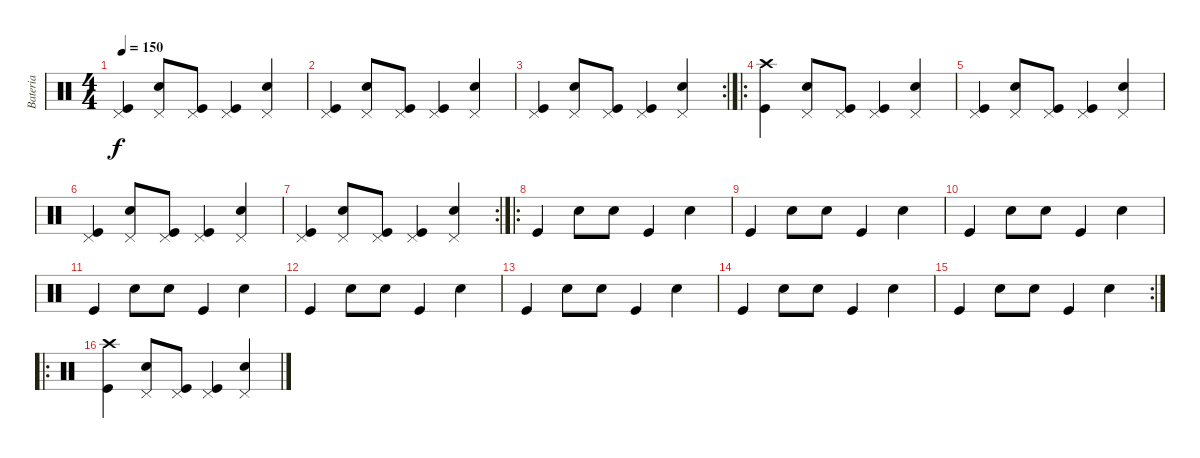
\track ("Bateria" "Bateria") {instrument percussion}
\staff {score}
\articulation defaults
\ts (4 4)
\tempo 150
\clef neutral
\ks c
("Pedal Hi-Hat (hit)" "Kick (hit)").4{dy f} ("Pedal Hi-Hat (hit)" "Snare (hit) 2").8 ("Pedal Hi-Hat (hit)" "Kick (hit)").8 ("Pedal Hi-Hat (hit)" "Kick (hit)").4 ("Pedal Hi-Hat (hit)" "Snare (hit) 2").4 |
("Pedal Hi-Hat (hit)" "Kick (hit)").4 ("Pedal Hi-Hat (hit)" "Snare (hit) 2").8 ("Pedal Hi-Hat (hit)" "Kick (hit)").8 ("Pedal Hi-Hat (hit)" "Kick (hit)").4 ("Pedal Hi-Hat (hit)" "Snare (hit) 2").4 |
\rc 2
("Pedal Hi-Hat (hit)" "Kick (hit)").4 ("Pedal Hi-Hat (hit)" "Snare (hit) 2").8 ("Pedal Hi-Hat (hit)" "Kick (hit)").8 ("Pedal Hi-Hat (hit)" "Kick (hit)").4 ("Pedal Hi-Hat (hit)" "Snare (hit) 2").4 |
\ro
("Crash high (hit)" "Kick (hit)").4 ("Pedal Hi-Hat (hit)" "Snare (hit) 2").8 ("Pedal Hi-Hat (hit)" "Kick (hit)").8 ("Pedal Hi-Hat (hit)" "Kick (hit)").4 ("Pedal Hi-Hat (hit)" "Snare (hit) 2").4 |
("Pedal Hi-Hat (hit)" "Kick (hit)").4 ("Pedal Hi-Hat (hit)" "Snare (hit) 2").8 ("Pedal Hi-Hat (hit)" "Kick (hit)").8 ("Pedal Hi-Hat (hit)" "Kick (hit)").4 ("Pedal Hi-Hat (hit)" "Snare (hit) 2").4 |
("Pedal Hi-Hat (hit)" "Kick (hit)").4 ("Pedal Hi-Hat (hit)" "Snare (hit) 2").8 ("Pedal Hi-Hat (hit)" "Kick (hit)").8 ("Pedal Hi-Hat (hit)" "Kick (hit)").4 ("Pedal Hi-Hat (hit)" "Snare (hit) 2").4 |
\rc 2
("Pedal Hi-Hat (hit)" "Kick (hit)").4 ("Pedal Hi-Hat (hit)" "Snare (hit) 2").8 ("Pedal Hi-Hat (hit)" "Kick (hit)").8 ("Pedal Hi-Hat (hit)" "Kick (hit)").4 ("Pedal Hi-Hat (hit)" "Snare (hit) 2").4 |
\ro "Kick (hit)".4 "Snare (hit) 2".8 "Snare (hit) 2".8 "Kick (hit)".4 "Snare (hit) 2".4
|
"Kick (hit)".4 "Snare (hit) 2".8 "Snare (hit) 2".8 "Kick (hit)".4 "Snare (hit) 2".4 |
"Kick (hit)".4 "Snare (hit) 2".8 "Snare (hit) 2".8 "Kick (hit)".4 "Snare (hit) 2".4 |
"Kick (hit)".4 "Snare (hit) 2".8 "Snare (hit) 2".8 "Kick (hit)".4 "Snare (hit) 2".4 |
"Kick (hit)".4 "Snare (hit) 2".8 "Snare (hit) 2".8 "Kick (hit)".4 "Snare (hit) 2".4 |
"Kick (hit)".4 "Snare (hit) 2".8 "Snare (hit) 2".8 "Kick (hit)".4 "Snare (hit) 2".4 |
"Kick (hit)".4 "Snare (hit) 2".8 "Snare (hit) 2".8 "Kick (hit)".4 "Snare (hit) 2".4 |
\rc 2 "Kick (hit)".4 "Snare (hit) 2".8 "Snare (hit) 2".8 "Kick (hit)".4 "Snare (hit) 2".4
|
\ro
("Crash high (hit)" "Kick (hit)").4 ("Pedal Hi-Hat (hit)" "Snare (hit) 2").8 ("Pedal Hi-Hat (hit)" "Kick (hit)").8 ("Pedal Hi-Hat (hit)" "Kick (hit)").4 ("Pedal Hi-Hat (hit)" "Snare (hit) 2").4
